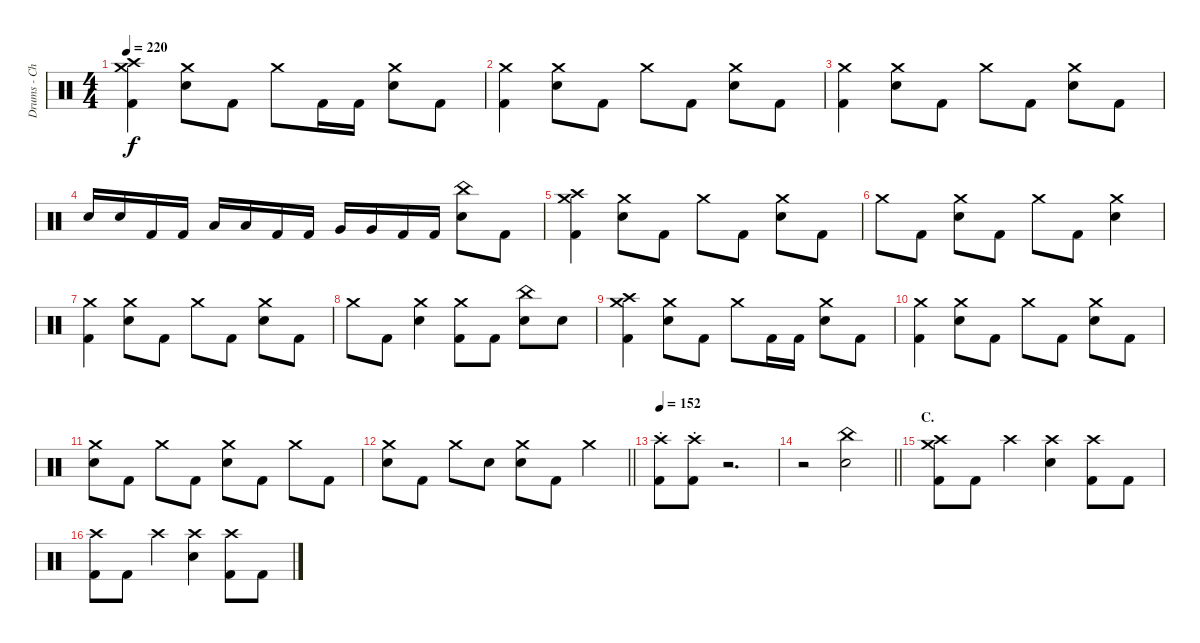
\track ("Drums - Christopher Hornbrook" "Drums - Ch") {instrument percussion}
\staff {score}
\articulation defaults
\ts (4 4)
\tempo 220
\clef neutral
\ks c
("Crash medium (hit)" "Crash high (hit)" "Kick (hit) 2").4{dy f} ("Crash medium (hit)" "Electric Snare (hit)").8 "Kick (hit) 2".8 "Crash medium (hit)".8 "Kick (hit) 2".16 "Kick (hit) 2".16 ("Crash medium (hit)" "Electric Snare (hit)").8 "Kick (hit) 2".8 |
("Crash medium (hit)" "Kick (hit) 2").4 ("Crash medium (hit)" "Electric Snare (hit)").8 "Kick (hit) 2".8 "Crash medium (hit)".8 "Kick (hit) 2".8 ("Crash medium (hit)" "Electric Snare (hit)").8 "Kick (hit) 2".8 |
("Crash medium (hit)" "Kick (hit) 2").4 ("Crash medium (hit)" "Electric Snare (hit)").8 "Kick (hit) 2".8 "Crash medium (hit)".8 "Kick (hit) 2".8 ("Crash medium (hit)" "Electric Snare (hit)").8 "Kick (hit) 2".8 |
"Electric Snare (hit)".16 "Electric Snare (hit)".16 "Kick (hit) 2".16 "Kick (hit) 2".16 "Low Tom (hit)".16 "Low Tom (hit)".16 "Kick (hit) 2".16 "Kick (hit) 2".16 "Very Low Tom (hit)".16 "Very Low Tom (hit)".16 "Kick (hit) 2".16 "Kick (hit) 2".16 ("China (hit)" "Electric Snare (hit)").8 "Kick (hit) 2".8 |
("Crash medium (hit)" "Crash high (hit)" "Kick (hit) 2").4 ("Crash medium (hit)" "Electric Snare (hit)").8 "Kick (hit) 2".8 "Crash medium (hit)".8 "Kick (hit) 2".8 ("Crash medium (hit)" "Electric Snare (hit)").8 "Kick (hit) 2".8 |
"Crash medium (hit)".8 "Kick (hit) 2".8 ("Crash medium (hit)" "Electric Snare (hit)").8 "Kick (hit) 2".8 "Crash medium (hit)".8 "Kick (hit) 2".8 ("Crash medium (hit)" "Electric Snare (hit)").4 |
("Crash medium (hit)" "Kick (hit) 2").4 ("Crash medium (hit)" "Electric Snare (hit)").8 "Kick (hit) 2".8 "Crash medium (hit)".8 "Kick (hit) 2".8 ("Crash medium (hit)" "Electric Snare (hit)").8 "Kick (hit) 2".8 |
"Crash medium (hit)".8 "Kick (hit) 2".8 ("Crash medium (hit)" "Electric Snare (hit)").4 ("Crash medium (hit)" "Kick (hit) 2").8 "Kick (hit) 2".8 ("China (hit)" "Electric Snare (hit)").8 "Electric Snare (hit)".8 |
("Crash medium (hit)" "Crash high (hit)" "Kick (hit) 2").4 ("Crash medium (hit)" "Electric Snare (hit)").8 "Kick (hit) 2".8 "Crash medium (hit)".8 "Kick (hit) 2".16 "Kick (hit) 2".16 ("Crash medium (hit)" "Electric Snare (hit)").8 "Kick (hit) 2".8 |
("Crash medium (hit)" "Kick (hit) 2").4 ("Crash medium (hit)" "Electric Snare (hit)").8 "Kick (hit) 2".8 "Crash medium (hit)".8 "Kick (hit) 2".8 ("Crash medium (hit)" "Electric Snare (hit)").8 "Kick (hit) 2".8 |
("Crash medium (hit)" "Electric Snare (hit)").8 "Kick (hit) 2".8 "Crash medium (hit)".8 "Kick (hit) 2".8 ("Crash medium (hit)" "Electric Snare (hit)").8 "Kick (hit) 2".8 "Crash medium (hit)".8 "Kick (hit) 2".8 |
\barLineRight lightlight
("Crash medium (hit)" "Electric Snare (hit)").8 "Kick (hit) 2".8 "Crash medium (hit)".8 "Electric Snare (hit)".8 ("Crash medium (hit)" "Electric Snare (hit)").8 "Kick (hit) 2".8 "Crash medium (hit)".4 |
\section ("" "")
\tempo 152
("Crash high (hit)"{st} "Kick (hit) 2").8 ("Crash high (hit)"{st} "Kick (hit) 2").8 r.2{d volume 0} |
\barLineRight lightlight
r.2 ("China (hit)" "Electric Snare (hit)").2{volume 14} |
\section ("" "C.")
("Crash medium (hit)" "Crash high (hit)" "Kick (hit) 2").8 "Kick (hit) 2".8 "Crash high (hit)".4 ("Crash high (hit)" "Electric Snare (hit)").4 ("Crash high (hit)" "Kick (hit) 2").8 "Kick (hit) 2".8 |
("Crash high (hit)" "Kick (hit) 2").8 "Kick (hit) 2".8 "Crash high (hit)".4 ("Crash high (hit)" "Electric Snare (hit)").4 ("Crash high (hit)" "Kick (hit) 2").8 "Kick (hit) 2".8
